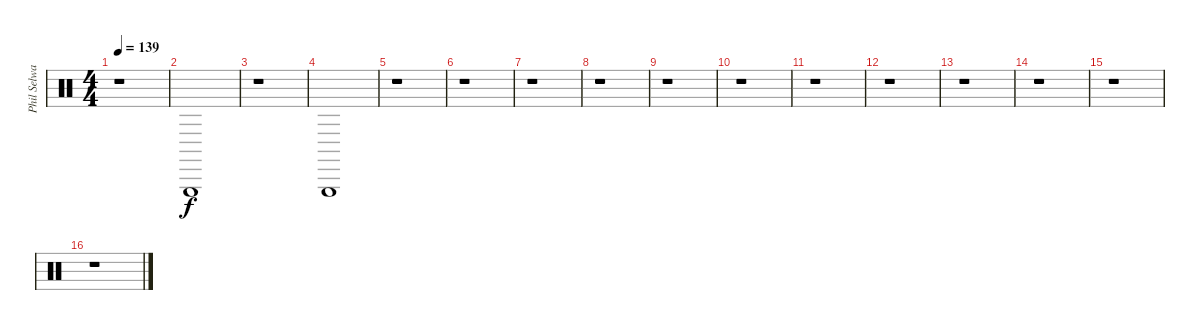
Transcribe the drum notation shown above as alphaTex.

\track ("Phil Selway - Drums" "Phil Selwa") {instrument percussion}
\staff {score}
\articulation defaults
\ts (4 4)
\tempo 139
\clef neutral
\ks c
r.1{dy f} |
"Triangle (hit)".1 |
r.1 |
"Triangle (hit)".1 |
r.1 |
r.1 |
r.1 |
r.1 |
r.1 |
r.1 |
r.1 |
r.1 |
r.1 |
r.1 |
r.1 |
r.1
